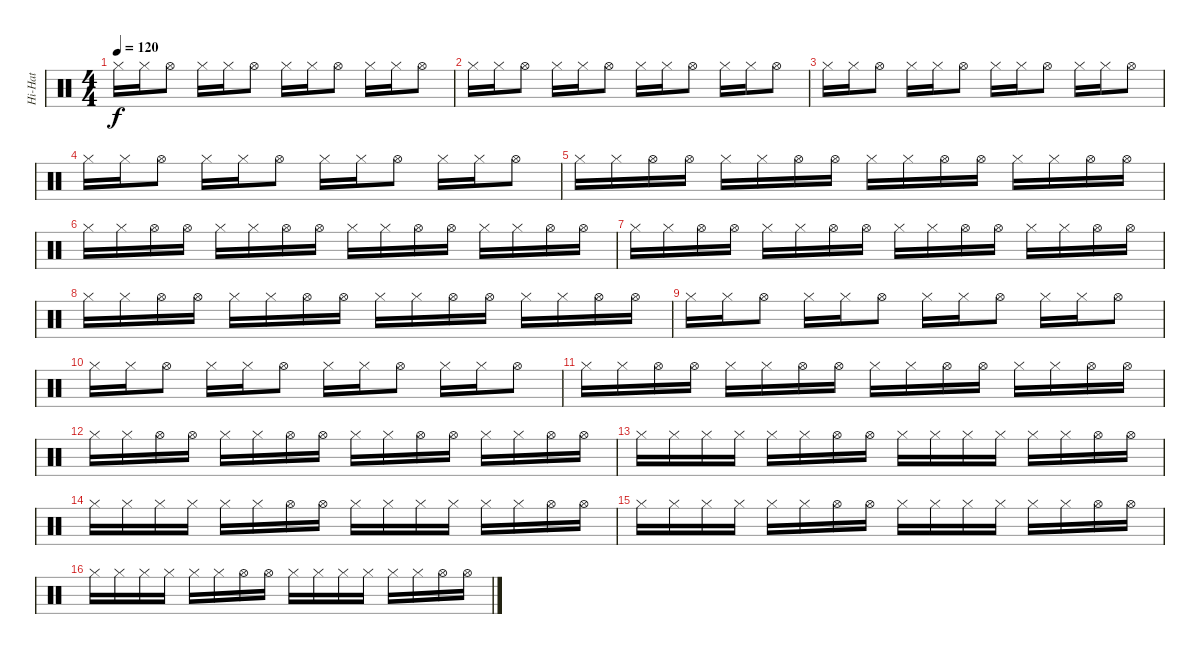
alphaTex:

\track ("Hi-Hat" "Hi-Hat") {instrument percussion}
\staff {score}
\articulation defaults
\ts (4 4)
\tempo 120
\clef neutral
\ks c "Hi-Hat (closed)".16{dy f} "Hi-Hat (closed)".16 "Hi-Hat (open)".8 "Hi-Hat (closed)".16 "Hi-Hat (closed)".16 "Hi-Hat (open)".8 "Hi-Hat (closed)".16 "Hi-Hat (closed)".16 "Hi-Hat (open)".8 "Hi-Hat (closed)".16 "Hi-Hat (closed)".16 "Hi-Hat (open)".8
|
"Hi-Hat (closed)".16 "Hi-Hat (closed)".16 "Hi-Hat (open)".8 "Hi-Hat (closed)".16 "Hi-Hat (closed)".16 "Hi-Hat (open)".8 "Hi-Hat (closed)".16 "Hi-Hat (closed)".16 "Hi-Hat (open)".8 "Hi-Hat (closed)".16 "Hi-Hat (closed)".16 "Hi-Hat (open)".8 |
"Hi-Hat (closed)".16 "Hi-Hat (closed)".16 "Hi-Hat (open)".8 "Hi-Hat (closed)".16 "Hi-Hat (closed)".16 "Hi-Hat (open)".8 "Hi-Hat (closed)".16 "Hi-Hat (closed)".16 "Hi-Hat (open)".8 "Hi-Hat (closed)".16 "Hi-Hat (closed)".16 "Hi-Hat (open)".8 |
"Hi-Hat (closed)".16 "Hi-Hat (closed)".16 "Hi-Hat (open)".8 "Hi-Hat (closed)".16 "Hi-Hat (closed)".16 "Hi-Hat (open)".8 "Hi-Hat (closed)".16 "Hi-Hat (closed)".16 "Hi-Hat (open)".8 "Hi-Hat (closed)".16 "Hi-Hat (closed)".16 "Hi-Hat (open)".8 |
"Hi-Hat (closed)".16 "Hi-Hat (closed)".16 "Hi-Hat (open)".16 "Hi-Hat (open)".16 "Hi-Hat (closed)".16 "Hi-Hat (closed)".16 "Hi-Hat (open)".16 "Hi-Hat (open)".16 "Hi-Hat (closed)".16 "Hi-Hat (closed)".16 "Hi-Hat (open)".16 "Hi-Hat (open)".16 "Hi-Hat (closed)".16 "Hi-Hat (closed)".16 "Hi-Hat (open)".16 "Hi-Hat (open)".16 |
"Hi-Hat (closed)".16 "Hi-Hat (closed)".16 "Hi-Hat (open)".16 "Hi-Hat (open)".16 "Hi-Hat (closed)".16 "Hi-Hat (closed)".16 "Hi-Hat (open)".16 "Hi-Hat (open)".16 "Hi-Hat (closed)".16 "Hi-Hat (closed)".16 "Hi-Hat (open)".16 "Hi-Hat (open)".16 "Hi-Hat (closed)".16 "Hi-Hat (closed)".16 "Hi-Hat (open)".16 "Hi-Hat (open)".16 |
"Hi-Hat (closed)".16 "Hi-Hat (closed)".16 "Hi-Hat (open)".16 "Hi-Hat (open)".16 "Hi-Hat (closed)".16 "Hi-Hat (closed)".16 "Hi-Hat (open)".16 "Hi-Hat (open)".16 "Hi-Hat (closed)".16 "Hi-Hat (closed)".16 "Hi-Hat (open)".16 "Hi-Hat (open)".16 "Hi-Hat (closed)".16 "Hi-Hat (closed)".16 "Hi-Hat (open)".16 "Hi-Hat (open)".16 |
"Hi-Hat (closed)".16 "Hi-Hat (closed)".16 "Hi-Hat (open)".16 "Hi-Hat (open)".16 "Hi-Hat (closed)".16 "Hi-Hat (closed)".16 "Hi-Hat (open)".16 "Hi-Hat (open)".16 "Hi-Hat (closed)".16 "Hi-Hat (closed)".16 "Hi-Hat (open)".16 "Hi-Hat (open)".16 "Hi-Hat (closed)".16 "Hi-Hat (closed)".16 "Hi-Hat (open)".16 "Hi-Hat (open)".16 |
"Hi-Hat (closed)".16 "Hi-Hat (closed)".16 "Hi-Hat (open)".8 "Hi-Hat (closed)".16 "Hi-Hat (closed)".16 "Hi-Hat (open)".8 "Hi-Hat (closed)".16 "Hi-Hat (closed)".16 "Hi-Hat (open)".8 "Hi-Hat (closed)".16 "Hi-Hat (closed)".16 "Hi-Hat (open)".8 |
"Hi-Hat (closed)".16 "Hi-Hat (closed)".16 "Hi-Hat (open)".8 "Hi-Hat (closed)".16 "Hi-Hat (closed)".16 "Hi-Hat (open)".8 "Hi-Hat (closed)".16 "Hi-Hat (closed)".16 "Hi-Hat (open)".8 "Hi-Hat (closed)".16 "Hi-Hat (closed)".16 "Hi-Hat (open)".8 |
"Hi-Hat (closed)".16 "Hi-Hat (closed)".16 "Hi-Hat (open)".16 "Hi-Hat (open)".16 "Hi-Hat (closed)".16 "Hi-Hat (closed)".16 "Hi-Hat (open)".16 "Hi-Hat (open)".16 "Hi-Hat (closed)".16 "Hi-Hat (closed)".16 "Hi-Hat (open)".16 "Hi-Hat (open)".16 "Hi-Hat (closed)".16 "Hi-Hat (closed)".16 "Hi-Hat (open)".16 "Hi-Hat (open)".16 |
"Hi-Hat (closed)".16 "Hi-Hat (closed)".16 "Hi-Hat (open)".16 "Hi-Hat (open)".16 "Hi-Hat (closed)".16 "Hi-Hat (closed)".16 "Hi-Hat (open)".16 "Hi-Hat (open)".16 "Hi-Hat (closed)".16 "Hi-Hat (closed)".16 "Hi-Hat (open)".16 "Hi-Hat (open)".16 "Hi-Hat (closed)".16 "Hi-Hat (closed)".16 "Hi-Hat (open)".16 "Hi-Hat (open)".16 |
"Hi-Hat (closed)".16 "Hi-Hat (closed)".16 "Hi-Hat (closed)".16 "Hi-Hat (closed)".16 "Hi-Hat (closed)".16 "Hi-Hat (closed)".16 "Hi-Hat (open)".16 "Hi-Hat (open)".16 "Hi-Hat (closed)".16 "Hi-Hat (closed)".16 "Hi-Hat (closed)".16 "Hi-Hat (closed)".16 "Hi-Hat (closed)".16 "Hi-Hat (closed)".16 "Hi-Hat (open)".16 "Hi-Hat (open)".16 |
"Hi-Hat (closed)".16 "Hi-Hat (closed)".16 "Hi-Hat (closed)".16 "Hi-Hat (closed)".16 "Hi-Hat (closed)".16 "Hi-Hat (closed)".16 "Hi-Hat (open)".16 "Hi-Hat (open)".16 "Hi-Hat (closed)".16 "Hi-Hat (closed)".16 "Hi-Hat (closed)".16 "Hi-Hat (closed)".16 "Hi-Hat (closed)".16 "Hi-Hat (closed)".16 "Hi-Hat (open)".16 "Hi-Hat (open)".16 |
"Hi-Hat (closed)".16 "Hi-Hat (closed)".16 "Hi-Hat (closed)".16 "Hi-Hat (closed)".16 "Hi-Hat (closed)".16 "Hi-Hat (closed)".16 "Hi-Hat (open)".16 "Hi-Hat (open)".16 "Hi-Hat (closed)".16 "Hi-Hat (closed)".16 "Hi-Hat (closed)".16 "Hi-Hat (closed)".16 "Hi-Hat (closed)".16 "Hi-Hat (closed)".16 "Hi-Hat (open)".16 "Hi-Hat (open)".16 |
"Hi-Hat (closed)".16 "Hi-Hat (closed)".16 "Hi-Hat (closed)".16 "Hi-Hat (closed)".16 "Hi-Hat (closed)".16 "Hi-Hat (closed)".16 "Hi-Hat (open)".16 "Hi-Hat (open)".16 "Hi-Hat (closed)".16 "Hi-Hat (closed)".16 "Hi-Hat (closed)".16 "Hi-Hat (closed)".16 "Hi-Hat (closed)".16 "Hi-Hat (closed)".16 "Hi-Hat (open)".16 "Hi-Hat (open)".16
